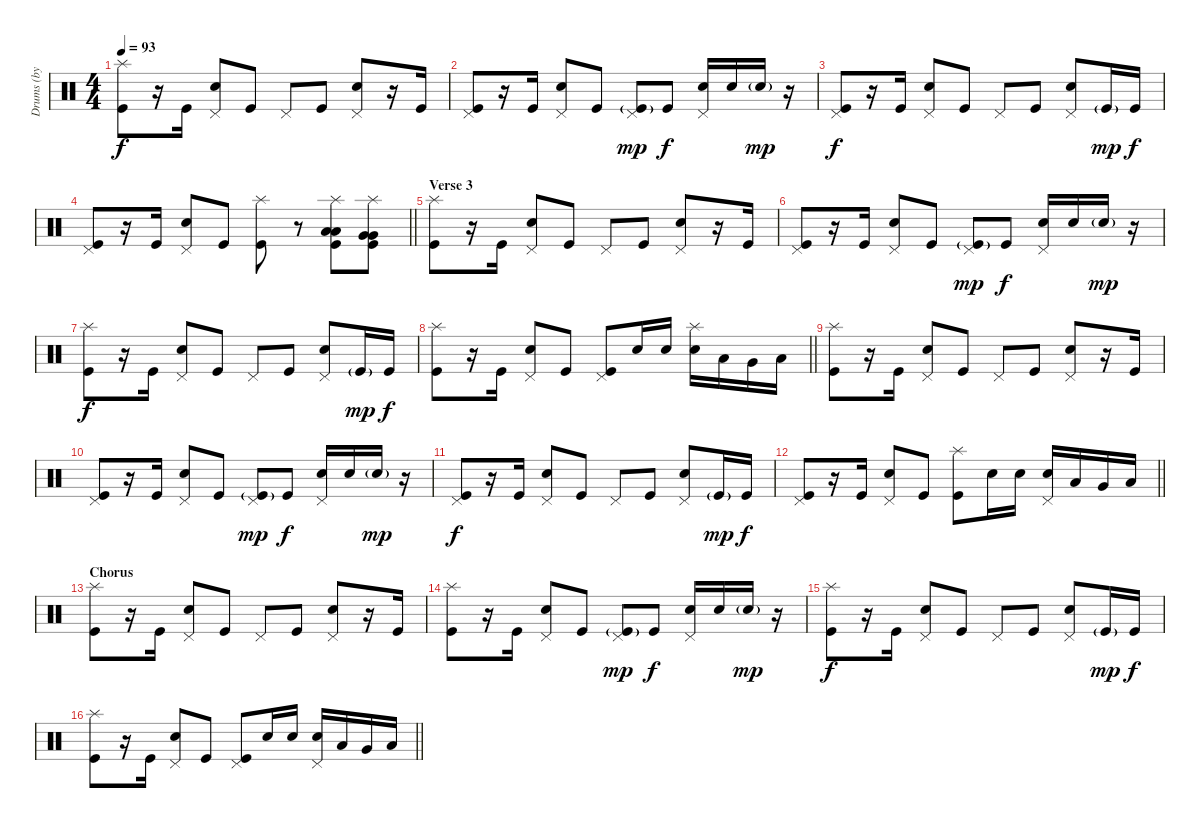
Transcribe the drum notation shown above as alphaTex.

\track ("Drums (by maxor)" "Drums (by ") {instrument percussion}
\staff {score}
\articulation defaults
\ts (4 4)
\tempo 93
\clef neutral
\ks c
("Splash (hit)" "Kick (hit)").8{dy f} r.16 "Kick (hit)".16 ("Pedal Hi-Hat (hit)" "Electric Snare (hit)").8 "Kick (hit)".8 "Pedal Hi-Hat (hit)".8 "Kick (hit)".8 ("Pedal Hi-Hat (hit)" "Electric Snare (hit)").8 r.16 "Kick (hit)".16 |
("Pedal Hi-Hat (hit)" "Kick (hit)").8 r.16 "Kick (hit)".16 ("Pedal Hi-Hat (hit)" "Electric Snare (hit)").8 "Kick (hit)".8 ("Pedal Hi-Hat (hit)" "Kick (hit)"{g}).8{dy mp} "Kick (hit)".8{dy f} ("Pedal Hi-Hat (hit)" "Electric Snare (hit)").16 "Electric Snare (hit)".16 "Electric Snare (hit)"{g}.16{dy mp} r.16 |
("Pedal Hi-Hat (hit)" "Kick (hit)").8{dy f} r.16 "Kick (hit)".16 ("Pedal Hi-Hat (hit)" "Electric Snare (hit)").8 "Kick (hit)".8 "Pedal Hi-Hat (hit)".8 "Kick (hit)".8 ("Pedal Hi-Hat (hit)" "Electric Snare (hit)").8 "Kick (hit)"{g}.16{dy mp} "Kick (hit)".16{dy f} |
\barLineRight lightlight
("Pedal Hi-Hat (hit)" "Kick (hit)").8 r.16 "Kick (hit)".16 ("Pedal Hi-Hat (hit)" "Electric Snare (hit)").8 "Kick (hit)".8 ("Splash (hit)" "Kick (hit)").8 r.8 ("Splash (hit)" "Low Tom (hit)" "Low Tom (hit)" "Kick (hit)").8 ("Splash (hit)" "Very Low Tom (hit)" "Very Low Tom (hit)" "Kick (hit)").8 |
\section ("" "Verse 3")
("Splash (hit)" "Kick (hit)").8 r.16 "Kick (hit)".16 ("Pedal Hi-Hat (hit)" "Electric Snare (hit)").8 "Kick (hit)".8 "Pedal Hi-Hat (hit)".8 "Kick (hit)".8 ("Pedal Hi-Hat (hit)" "Electric Snare (hit)").8 r.16 "Kick (hit)".16 |
("Pedal Hi-Hat (hit)" "Kick (hit)").8 r.16 "Kick (hit)".16 ("Pedal Hi-Hat (hit)" "Electric Snare (hit)").8 "Kick (hit)".8 ("Pedal Hi-Hat (hit)" "Kick (hit)"{g}).8{dy mp} "Kick (hit)".8{dy f} ("Pedal Hi-Hat (hit)" "Electric Snare (hit)").16 "Electric Snare (hit)".16 "Electric Snare (hit)"{g}.16{dy mp} r.16 |
("Splash (hit)" "Kick (hit)").8{dy f} r.16 "Kick (hit)".16 ("Pedal Hi-Hat (hit)" "Electric Snare (hit)").8 "Kick (hit)".8 "Pedal Hi-Hat (hit)".8 "Kick (hit)".8 ("Pedal Hi-Hat (hit)" "Electric Snare (hit)").8 "Kick (hit)"{g}.16{dy mp} "Kick (hit)".16{dy f} |
\barLineRight lightlight
("Splash (hit)" "Kick (hit)").8 r.16 "Kick (hit)".16 ("Pedal Hi-Hat (hit)" "Electric Snare (hit)").8 "Kick (hit)".8 ("Pedal Hi-Hat (hit)" "Kick (hit)").8 "Electric Snare (hit)".16 "Electric Snare (hit)".16 ("Splash (hit)" "Electric Snare (hit)").16 "Low Tom (hit)".16 "Very Low Tom (hit)".16 "Low Tom (hit)".16 |
("Splash (hit)" "Kick (hit)").8 r.16 "Kick (hit)".16 ("Pedal Hi-Hat (hit)" "Electric Snare (hit)").8 "Kick (hit)".8 "Pedal Hi-Hat (hit)".8 "Kick (hit)".8 ("Pedal Hi-Hat (hit)" "Electric Snare (hit)").8 r.16 "Kick (hit)".16 |
("Pedal Hi-Hat (hit)" "Kick (hit)").8 r.16 "Kick (hit)".16 ("Pedal Hi-Hat (hit)" "Electric Snare (hit)").8 "Kick (hit)".8 ("Pedal Hi-Hat (hit)" "Kick (hit)"{g}).8{dy mp} "Kick (hit)".8{dy f} ("Pedal Hi-Hat (hit)" "Electric Snare (hit)").16 "Electric Snare (hit)".16 "Electric Snare (hit)"{g}.16{dy mp} r.16 |
("Pedal Hi-Hat (hit)" "Kick (hit)").8{dy f} r.16 "Kick (hit)".16 ("Pedal Hi-Hat (hit)" "Electric Snare (hit)").8 "Kick (hit)".8 "Pedal Hi-Hat (hit)".8 "Kick (hit)".8 ("Pedal Hi-Hat (hit)" "Electric Snare (hit)").8 "Kick (hit)"{g}.16{dy mp} "Kick (hit)".16{dy f} |
\barLineRight lightlight
("Pedal Hi-Hat (hit)" "Kick (hit)").8 r.16 "Kick (hit)".16 ("Pedal Hi-Hat (hit)" "Electric Snare (hit)").8 "Kick (hit)".8 ("Splash (hit)" "Kick (hit)").8 "Electric Snare (hit)".16 "Electric Snare (hit)".16 ("Pedal Hi-Hat (hit)" "Electric Snare (hit)").16 "Low Tom (hit)".16 "Very Low Tom (hit)".16 "Low Tom (hit)".16 |
\section ("" "Chorus")
("Splash (hit)" "Kick (hit)").8 r.16 "Kick (hit)".16 ("Pedal Hi-Hat (hit)" "Electric Snare (hit)").8 "Kick (hit)".8 "Pedal Hi-Hat (hit)".8 "Kick (hit)".8 ("Pedal Hi-Hat (hit)" "Electric Snare (hit)").8 r.16 "Kick (hit)".16 |
("Splash (hit)" "Kick (hit)").8 r.16 "Kick (hit)".16 ("Pedal Hi-Hat (hit)" "Electric Snare (hit)").8 "Kick (hit)".8 ("Pedal Hi-Hat (hit)" "Kick (hit)"{g}).8{dy mp} "Kick (hit)".8{dy f} ("Pedal Hi-Hat (hit)" "Electric Snare (hit)").16 "Electric Snare (hit)".16 "Electric Snare (hit)"{g}.16{dy mp} r.16 |
("Splash (hit)" "Kick (hit)").8{dy f} r.16 "Kick (hit)".16 ("Pedal Hi-Hat (hit)" "Electric Snare (hit)").8 "Kick (hit)".8 "Pedal Hi-Hat (hit)".8 "Kick (hit)".8 ("Pedal Hi-Hat (hit)" "Electric Snare (hit)").8 "Kick (hit)"{g}.16{dy mp} "Kick (hit)".16{dy f} |
\barLineRight lightlight
("Splash (hit)" "Kick (hit)").8 r.16 "Kick (hit)".16 ("Pedal Hi-Hat (hit)" "Electric Snare (hit)").8 "Kick (hit)".8 ("Pedal Hi-Hat (hit)" "Kick (hit)").8 "Electric Snare (hit)".16 "Electric Snare (hit)".16 ("Pedal Hi-Hat (hit)" "Electric Snare (hit)").16 "Low Tom (hit)".16 "Very Low Tom (hit)".16 "Low Tom (hit)".16
